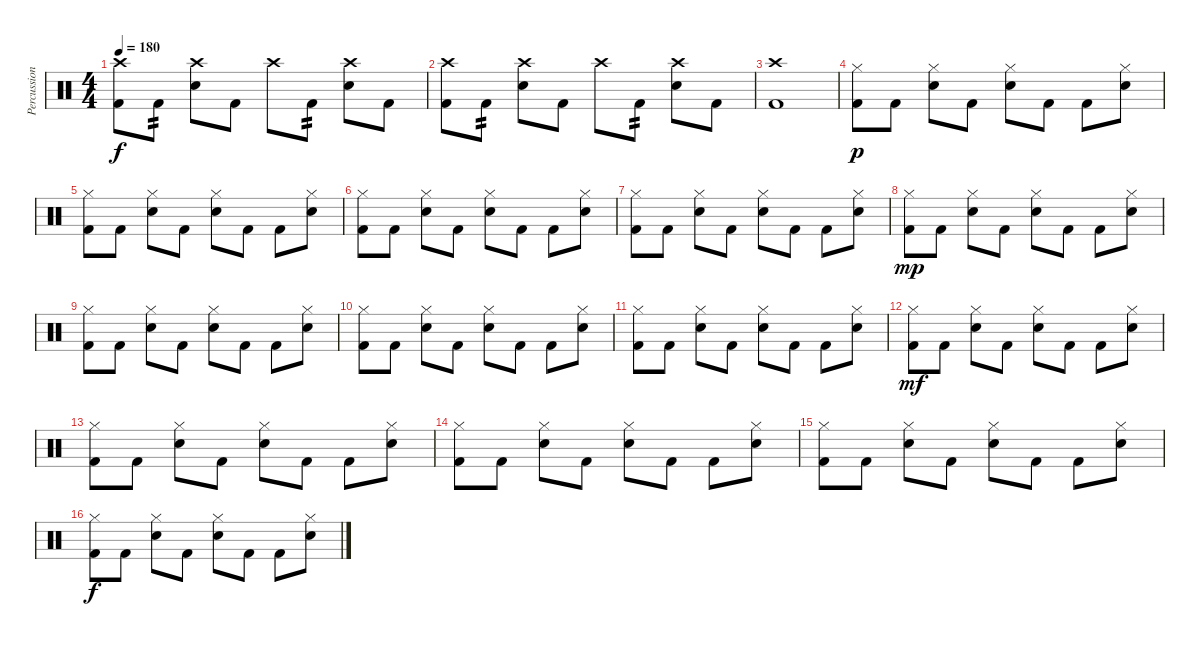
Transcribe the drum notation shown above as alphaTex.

\track ("Percussion" "Percussion") {instrument percussion}
\staff {score}
\articulation defaults
\ts (4 4)
\tempo 180
\clef neutral
\ks c
("Crash high (hit)" "Kick (hit) 2").8{dy f} "Kick (hit) 2".8{tp 2} ("Crash high (hit)" "Electric Snare (hit)").8 "Kick (hit) 2".8 "Crash high (hit)".8 "Kick (hit) 2".8{tp 2} ("Crash high (hit)" "Electric Snare (hit)").8 "Kick (hit) 2".8 |
("Crash high (hit)" "Kick (hit) 2").8 "Kick (hit) 2".8{tp 2} ("Crash high (hit)" "Electric Snare (hit)").8 "Kick (hit) 2".8 "Crash high (hit)".8 "Kick (hit) 2".8{tp 2} ("Crash high (hit)" "Electric Snare (hit)").8 "Kick (hit) 2".8 |
("Crash high (hit)" "Kick (hit) 2").1 |
("Hi-Hat (closed)" "Kick (hit) 2").8{dy p} "Kick (hit) 2".8 ("Hi-Hat (closed)" "Electric Snare (hit)").8 "Kick (hit) 2".8 ("Hi-Hat (closed)" "Electric Snare (hit)").8 "Kick (hit) 2".8 "Kick (hit) 2".8 ("Hi-Hat (closed)" "Electric Snare (hit)").8 |
("Hi-Hat (closed)" "Kick (hit) 2").8 "Kick (hit) 2".8 ("Hi-Hat (closed)" "Electric Snare (hit)").8 "Kick (hit) 2".8 ("Hi-Hat (closed)" "Electric Snare (hit)").8 "Kick (hit) 2".8 "Kick (hit) 2".8 ("Hi-Hat (closed)" "Electric Snare (hit)").8 |
("Hi-Hat (closed)" "Kick (hit) 2").8 "Kick (hit) 2".8 ("Hi-Hat (closed)" "Electric Snare (hit)").8 "Kick (hit) 2".8 ("Hi-Hat (closed)" "Electric Snare (hit)").8 "Kick (hit) 2".8 "Kick (hit) 2".8 ("Hi-Hat (closed)" "Electric Snare (hit)").8 |
("Hi-Hat (closed)" "Kick (hit) 2").8 "Kick (hit) 2".8 ("Hi-Hat (closed)" "Electric Snare (hit)").8 "Kick (hit) 2".8 ("Hi-Hat (closed)" "Electric Snare (hit)").8 "Kick (hit) 2".8 "Kick (hit) 2".8 ("Hi-Hat (closed)" "Electric Snare (hit)").8 |
("Hi-Hat (closed)" "Kick (hit) 2").8{dy mp} "Kick (hit) 2".8 ("Hi-Hat (closed)" "Electric Snare (hit)").8 "Kick (hit) 2".8 ("Hi-Hat (closed)" "Electric Snare (hit)").8 "Kick (hit) 2".8 "Kick (hit) 2".8 ("Hi-Hat (closed)" "Electric Snare (hit)").8 |
("Hi-Hat (closed)" "Kick (hit) 2").8 "Kick (hit) 2".8 ("Hi-Hat (closed)" "Electric Snare (hit)").8 "Kick (hit) 2".8 ("Hi-Hat (closed)" "Electric Snare (hit)").8 "Kick (hit) 2".8 "Kick (hit) 2".8 ("Hi-Hat (closed)" "Electric Snare (hit)").8 |
("Hi-Hat (closed)" "Kick (hit) 2").8 "Kick (hit) 2".8 ("Hi-Hat (closed)" "Electric Snare (hit)").8 "Kick (hit) 2".8 ("Hi-Hat (closed)" "Electric Snare (hit)").8 "Kick (hit) 2".8 "Kick (hit) 2".8 ("Hi-Hat (closed)" "Electric Snare (hit)").8 |
("Hi-Hat (closed)" "Kick (hit) 2").8 "Kick (hit) 2".8 ("Hi-Hat (closed)" "Electric Snare (hit)").8 "Kick (hit) 2".8 ("Hi-Hat (closed)" "Electric Snare (hit)").8 "Kick (hit) 2".8 "Kick (hit) 2".8 ("Hi-Hat (closed)" "Electric Snare (hit)").8 |
("Hi-Hat (closed)" "Kick (hit) 2").8{dy mf} "Kick (hit) 2".8 ("Hi-Hat (closed)" "Electric Snare (hit)").8 "Kick (hit) 2".8 ("Hi-Hat (closed)" "Electric Snare (hit)").8 "Kick (hit) 2".8 "Kick (hit) 2".8 ("Hi-Hat (closed)" "Electric Snare (hit)").8 |
("Hi-Hat (closed)" "Kick (hit) 2").8 "Kick (hit) 2".8 ("Hi-Hat (closed)" "Electric Snare (hit)").8 "Kick (hit) 2".8 ("Hi-Hat (closed)" "Electric Snare (hit)").8 "Kick (hit) 2".8 "Kick (hit) 2".8 ("Hi-Hat (closed)" "Electric Snare (hit)").8 |
("Hi-Hat (closed)" "Kick (hit) 2").8 "Kick (hit) 2".8 ("Hi-Hat (closed)" "Electric Snare (hit)").8 "Kick (hit) 2".8 ("Hi-Hat (closed)" "Electric Snare (hit)").8 "Kick (hit) 2".8 "Kick (hit) 2".8 ("Hi-Hat (closed)" "Electric Snare (hit)").8 |
("Hi-Hat (closed)" "Kick (hit) 2").8 "Kick (hit) 2".8 ("Hi-Hat (closed)" "Electric Snare (hit)").8 "Kick (hit) 2".8 ("Hi-Hat (closed)" "Electric Snare (hit)").8 "Kick (hit) 2".8 "Kick (hit) 2".8 ("Hi-Hat (closed)" "Electric Snare (hit)").8 |
("Hi-Hat (closed)" "Kick (hit) 2").8{dy f} "Kick (hit) 2".8 ("Hi-Hat (closed)" "Electric Snare (hit)").8 "Kick (hit) 2".8 ("Hi-Hat (closed)" "Electric Snare (hit)").8 "Kick (hit) 2".8 "Kick (hit) 2".8 ("Hi-Hat (closed)" "Electric Snare (hit)").8
